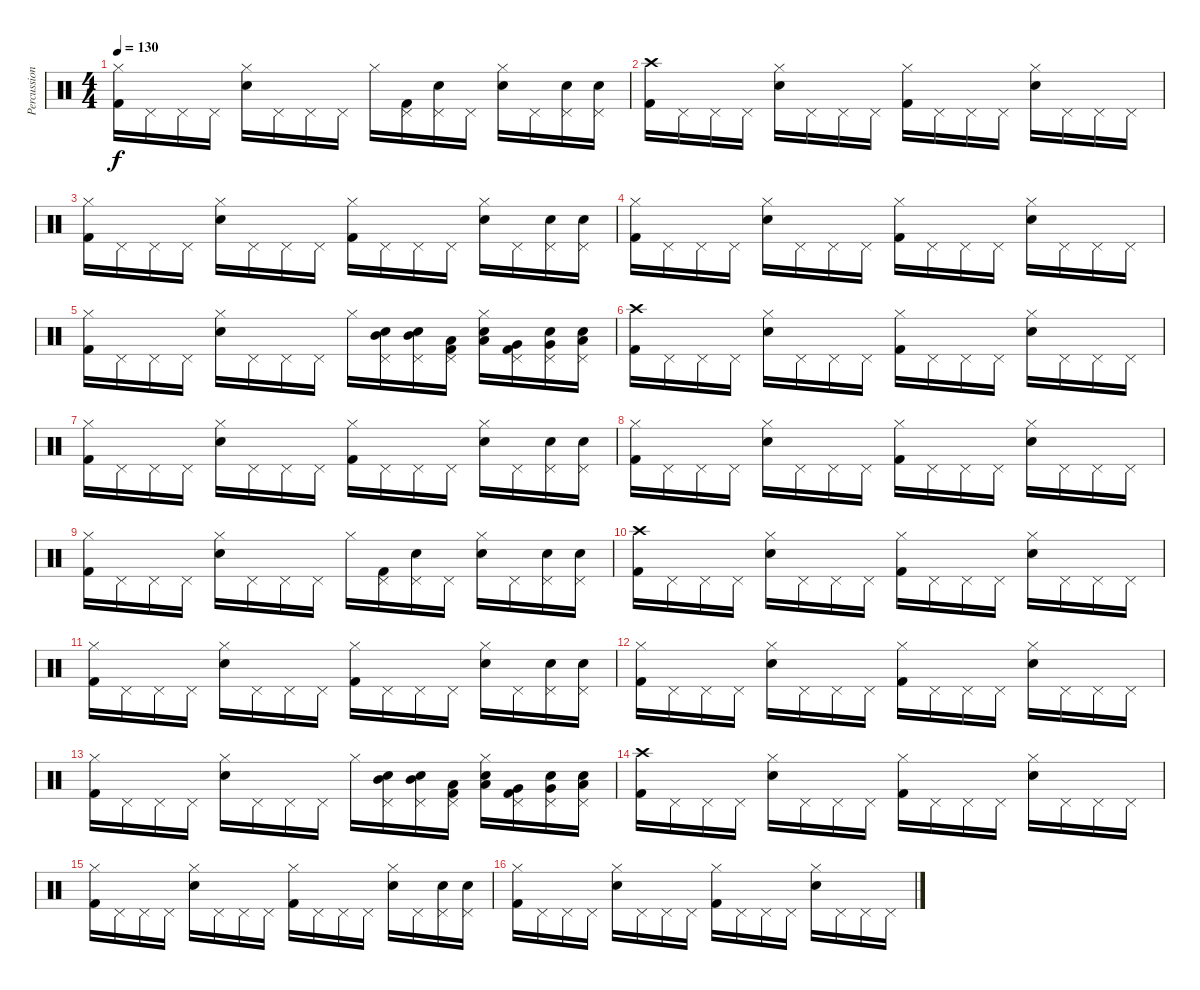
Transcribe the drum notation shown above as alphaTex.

\track ("Percussion" "Percussion") {instrument percussion}
\staff {score}
\articulation defaults
\ts (4 4)
\tempo 130
\clef neutral
\ks c
("Hi-Hat (closed)" "Kick (hit) 2").16{dy f} "Pedal Hi-Hat (hit)".16 "Pedal Hi-Hat (hit)".16 "Pedal Hi-Hat (hit)".16 ("Hi-Hat (closed)" "Snare (hit) 2").16 "Pedal Hi-Hat (hit)".16 "Pedal Hi-Hat (hit)".16 "Pedal Hi-Hat (hit)".16 "Hi-Hat (closed)".16 ("Pedal Hi-Hat (hit)" "Kick (hit) 2").16 ("Pedal Hi-Hat (hit)" "Snare (hit) 2").16 "Pedal Hi-Hat (hit)".16 ("Hi-Hat (closed)" "Snare (hit) 2").16 "Pedal Hi-Hat (hit)".16 ("Pedal Hi-Hat (hit)" "Snare (hit) 2").16 ("Pedal Hi-Hat (hit)" "Snare (hit) 2").16 |
("Crash high (hit)" "Kick (hit) 2").16 "Pedal Hi-Hat (hit)".16 "Pedal Hi-Hat (hit)".16 "Pedal Hi-Hat (hit)".16 ("Hi-Hat (closed)" "Snare (hit) 2").16 "Pedal Hi-Hat (hit)".16 "Pedal Hi-Hat (hit)".16 "Pedal Hi-Hat (hit)".16 ("Hi-Hat (closed)" "Kick (hit) 2").16 "Pedal Hi-Hat (hit)".16 "Pedal Hi-Hat (hit)".16 "Pedal Hi-Hat (hit)".16 ("Hi-Hat (closed)" "Snare (hit) 2").16 "Pedal Hi-Hat (hit)".16 "Pedal Hi-Hat (hit)".16 "Pedal Hi-Hat (hit)".16 |
("Hi-Hat (closed)" "Kick (hit) 2").16 "Pedal Hi-Hat (hit)".16 "Pedal Hi-Hat (hit)".16 "Pedal Hi-Hat (hit)".16 ("Hi-Hat (closed)" "Snare (hit) 2").16 "Pedal Hi-Hat (hit)".16 "Pedal Hi-Hat (hit)".16 "Pedal Hi-Hat (hit)".16 ("Hi-Hat (closed)" "Kick (hit) 2").16 "Pedal Hi-Hat (hit)".16 "Pedal Hi-Hat (hit)".16 "Pedal Hi-Hat (hit)".16 ("Hi-Hat (closed)" "Snare (hit) 2").16 "Pedal Hi-Hat (hit)".16 ("Pedal Hi-Hat (hit)" "Snare (hit) 2").16 ("Pedal Hi-Hat (hit)" "Snare (hit) 2").16 |
("Hi-Hat (closed)" "Kick (hit) 2").16 "Pedal Hi-Hat (hit)".16 "Pedal Hi-Hat (hit)".16 "Pedal Hi-Hat (hit)".16 ("Hi-Hat (closed)" "Snare (hit) 2").16 "Pedal Hi-Hat (hit)".16 "Pedal Hi-Hat (hit)".16 "Pedal Hi-Hat (hit)".16 ("Hi-Hat (closed)" "Kick (hit) 2").16 "Pedal Hi-Hat (hit)".16 "Pedal Hi-Hat (hit)".16 "Pedal Hi-Hat (hit)".16 ("Hi-Hat (closed)" "Snare (hit) 2").16 "Pedal Hi-Hat (hit)".16 "Pedal Hi-Hat (hit)".16 "Pedal Hi-Hat (hit)".16 |
("Hi-Hat (closed)" "Kick (hit) 2").16 "Pedal Hi-Hat (hit)".16 "Pedal Hi-Hat (hit)".16 "Pedal Hi-Hat (hit)".16 ("Hi-Hat (closed)" "Snare (hit) 2").16 "Pedal Hi-Hat (hit)".16 "Pedal Hi-Hat (hit)".16 "Pedal Hi-Hat (hit)".16 "Hi-Hat (closed)".16 ("Pedal Hi-Hat (hit)" "Mid Tom (hit)" "Snare (hit) 2").16 ("Pedal Hi-Hat (hit)" "Mid Tom (hit)" "Snare (hit) 2").16 ("Pedal Hi-Hat (hit)" "Low Tom (hit)" "Kick (hit) 2").16 ("Hi-Hat (closed)" "Low Tom (hit)" "Snare (hit) 2").16 ("Pedal Hi-Hat (hit)" "Very Low Tom (hit)" "Kick (hit) 2").16 ("Pedal Hi-Hat (hit)" "Very Low Tom (hit)" "Snare (hit) 2").16 ("Pedal Hi-Hat (hit)" "Low Floor Tom (hit)" "Snare (hit) 2").16 |
("Crash high (hit)" "Kick (hit) 2").16 "Pedal Hi-Hat (hit)".16 "Pedal Hi-Hat (hit)".16 "Pedal Hi-Hat (hit)".16 ("Hi-Hat (closed)" "Snare (hit) 2").16 "Pedal Hi-Hat (hit)".16 "Pedal Hi-Hat (hit)".16 "Pedal Hi-Hat (hit)".16 ("Hi-Hat (closed)" "Kick (hit) 2").16 "Pedal Hi-Hat (hit)".16 "Pedal Hi-Hat (hit)".16 "Pedal Hi-Hat (hit)".16 ("Hi-Hat (closed)" "Snare (hit) 2").16 "Pedal Hi-Hat (hit)".16 "Pedal Hi-Hat (hit)".16 "Pedal Hi-Hat (hit)".16 |
("Hi-Hat (closed)" "Kick (hit) 2").16 "Pedal Hi-Hat (hit)".16 "Pedal Hi-Hat (hit)".16 "Pedal Hi-Hat (hit)".16 ("Hi-Hat (closed)" "Snare (hit) 2").16 "Pedal Hi-Hat (hit)".16 "Pedal Hi-Hat (hit)".16 "Pedal Hi-Hat (hit)".16 ("Hi-Hat (closed)" "Kick (hit) 2").16 "Pedal Hi-Hat (hit)".16 "Pedal Hi-Hat (hit)".16 "Pedal Hi-Hat (hit)".16 ("Hi-Hat (closed)" "Snare (hit) 2").16 "Pedal Hi-Hat (hit)".16 ("Pedal Hi-Hat (hit)" "Snare (hit) 2").16 ("Pedal Hi-Hat (hit)" "Snare (hit) 2").16 |
("Hi-Hat (closed)" "Kick (hit) 2").16 "Pedal Hi-Hat (hit)".16 "Pedal Hi-Hat (hit)".16 "Pedal Hi-Hat (hit)".16 ("Hi-Hat (closed)" "Snare (hit) 2").16 "Pedal Hi-Hat (hit)".16 "Pedal Hi-Hat (hit)".16 "Pedal Hi-Hat (hit)".16 ("Hi-Hat (closed)" "Kick (hit) 2").16 "Pedal Hi-Hat (hit)".16 "Pedal Hi-Hat (hit)".16 "Pedal Hi-Hat (hit)".16 ("Hi-Hat (closed)" "Snare (hit) 2").16 "Pedal Hi-Hat (hit)".16 "Pedal Hi-Hat (hit)".16 "Pedal Hi-Hat (hit)".16 |
("Hi-Hat (closed)" "Kick (hit) 2").16 "Pedal Hi-Hat (hit)".16 "Pedal Hi-Hat (hit)".16 "Pedal Hi-Hat (hit)".16 ("Hi-Hat (closed)" "Snare (hit) 2").16 "Pedal Hi-Hat (hit)".16 "Pedal Hi-Hat (hit)".16 "Pedal Hi-Hat (hit)".16 "Hi-Hat (closed)".16 ("Pedal Hi-Hat (hit)" "Kick (hit) 2").16 ("Pedal Hi-Hat (hit)" "Snare (hit) 2").16 "Pedal Hi-Hat (hit)".16 ("Hi-Hat (closed)" "Snare (hit) 2").16 "Pedal Hi-Hat (hit)".16 ("Pedal Hi-Hat (hit)" "Snare (hit) 2").16 ("Pedal Hi-Hat (hit)" "Snare (hit) 2").16 |
("Crash high (hit)" "Kick (hit) 2").16 "Pedal Hi-Hat (hit)".16 "Pedal Hi-Hat (hit)".16 "Pedal Hi-Hat (hit)".16 ("Hi-Hat (closed)" "Snare (hit) 2").16 "Pedal Hi-Hat (hit)".16 "Pedal Hi-Hat (hit)".16 "Pedal Hi-Hat (hit)".16 ("Hi-Hat (closed)" "Kick (hit) 2").16 "Pedal Hi-Hat (hit)".16 "Pedal Hi-Hat (hit)".16 "Pedal Hi-Hat (hit)".16 ("Hi-Hat (closed)" "Snare (hit) 2").16 "Pedal Hi-Hat (hit)".16 "Pedal Hi-Hat (hit)".16 "Pedal Hi-Hat (hit)".16 |
("Hi-Hat (closed)" "Kick (hit) 2").16 "Pedal Hi-Hat (hit)".16 "Pedal Hi-Hat (hit)".16 "Pedal Hi-Hat (hit)".16 ("Hi-Hat (closed)" "Snare (hit) 2").16 "Pedal Hi-Hat (hit)".16 "Pedal Hi-Hat (hit)".16 "Pedal Hi-Hat (hit)".16 ("Hi-Hat (closed)" "Kick (hit) 2").16 "Pedal Hi-Hat (hit)".16 "Pedal Hi-Hat (hit)".16 "Pedal Hi-Hat (hit)".16 ("Hi-Hat (closed)" "Snare (hit) 2").16 "Pedal Hi-Hat (hit)".16 ("Pedal Hi-Hat (hit)" "Snare (hit) 2").16 ("Pedal Hi-Hat (hit)" "Snare (hit) 2").16 |
("Hi-Hat (closed)" "Kick (hit) 2").16 "Pedal Hi-Hat (hit)".16 "Pedal Hi-Hat (hit)".16 "Pedal Hi-Hat (hit)".16 ("Hi-Hat (closed)" "Snare (hit) 2").16 "Pedal Hi-Hat (hit)".16 "Pedal Hi-Hat (hit)".16 "Pedal Hi-Hat (hit)".16 ("Hi-Hat (closed)" "Kick (hit) 2").16 "Pedal Hi-Hat (hit)".16 "Pedal Hi-Hat (hit)".16 "Pedal Hi-Hat (hit)".16 ("Hi-Hat (closed)" "Snare (hit) 2").16 "Pedal Hi-Hat (hit)".16 "Pedal Hi-Hat (hit)".16 "Pedal Hi-Hat (hit)".16 |
("Hi-Hat (closed)" "Kick (hit) 2").16 "Pedal Hi-Hat (hit)".16 "Pedal Hi-Hat (hit)".16 "Pedal Hi-Hat (hit)".16 ("Hi-Hat (closed)" "Snare (hit) 2").16 "Pedal Hi-Hat (hit)".16 "Pedal Hi-Hat (hit)".16 "Pedal Hi-Hat (hit)".16 "Hi-Hat (closed)".16 ("Pedal Hi-Hat (hit)" "Mid Tom (hit)" "Snare (hit) 2").16 ("Pedal Hi-Hat (hit)" "Mid Tom (hit)" "Snare (hit) 2").16 ("Pedal Hi-Hat (hit)" "Low Tom (hit)" "Kick (hit) 2").16 ("Hi-Hat (closed)" "Low Tom (hit)" "Snare (hit) 2").16 ("Pedal Hi-Hat (hit)" "Very Low Tom (hit)" "Kick (hit) 2").16 ("Pedal Hi-Hat (hit)" "Very Low Tom (hit)" "Snare (hit) 2").16 ("Pedal Hi-Hat (hit)" "Low Floor Tom (hit)" "Snare (hit) 2").16 |
("Crash high (hit)" "Kick (hit) 2").16 "Pedal Hi-Hat (hit)".16 "Pedal Hi-Hat (hit)".16 "Pedal Hi-Hat (hit)".16 ("Hi-Hat (closed)" "Snare (hit) 2").16 "Pedal Hi-Hat (hit)".16 "Pedal Hi-Hat (hit)".16 "Pedal Hi-Hat (hit)".16 ("Hi-Hat (closed)" "Kick (hit) 2").16 "Pedal Hi-Hat (hit)".16 "Pedal Hi-Hat (hit)".16 "Pedal Hi-Hat (hit)".16 ("Hi-Hat (closed)" "Snare (hit) 2").16 "Pedal Hi-Hat (hit)".16 "Pedal Hi-Hat (hit)".16 "Pedal Hi-Hat (hit)".16 |
("Hi-Hat (closed)" "Kick (hit) 2").16 "Pedal Hi-Hat (hit)".16 "Pedal Hi-Hat (hit)".16 "Pedal Hi-Hat (hit)".16 ("Hi-Hat (closed)" "Snare (hit) 2").16 "Pedal Hi-Hat (hit)".16 "Pedal Hi-Hat (hit)".16 "Pedal Hi-Hat (hit)".16 ("Hi-Hat (closed)" "Kick (hit) 2").16 "Pedal Hi-Hat (hit)".16 "Pedal Hi-Hat (hit)".16 "Pedal Hi-Hat (hit)".16 ("Hi-Hat (closed)" "Snare (hit) 2").16 "Pedal Hi-Hat (hit)".16 ("Pedal Hi-Hat (hit)" "Snare (hit) 2").16 ("Pedal Hi-Hat (hit)" "Snare (hit) 2").16 |
("Hi-Hat (closed)" "Kick (hit) 2").16 "Pedal Hi-Hat (hit)".16 "Pedal Hi-Hat (hit)".16 "Pedal Hi-Hat (hit)".16 ("Hi-Hat (closed)" "Snare (hit) 2").16 "Pedal Hi-Hat (hit)".16 "Pedal Hi-Hat (hit)".16 "Pedal Hi-Hat (hit)".16 ("Hi-Hat (closed)" "Kick (hit) 2").16 "Pedal Hi-Hat (hit)".16 "Pedal Hi-Hat (hit)".16 "Pedal Hi-Hat (hit)".16 ("Hi-Hat (closed)" "Snare (hit) 2").16 "Pedal Hi-Hat (hit)".16 "Pedal Hi-Hat (hit)".16 "Pedal Hi-Hat (hit)".16
